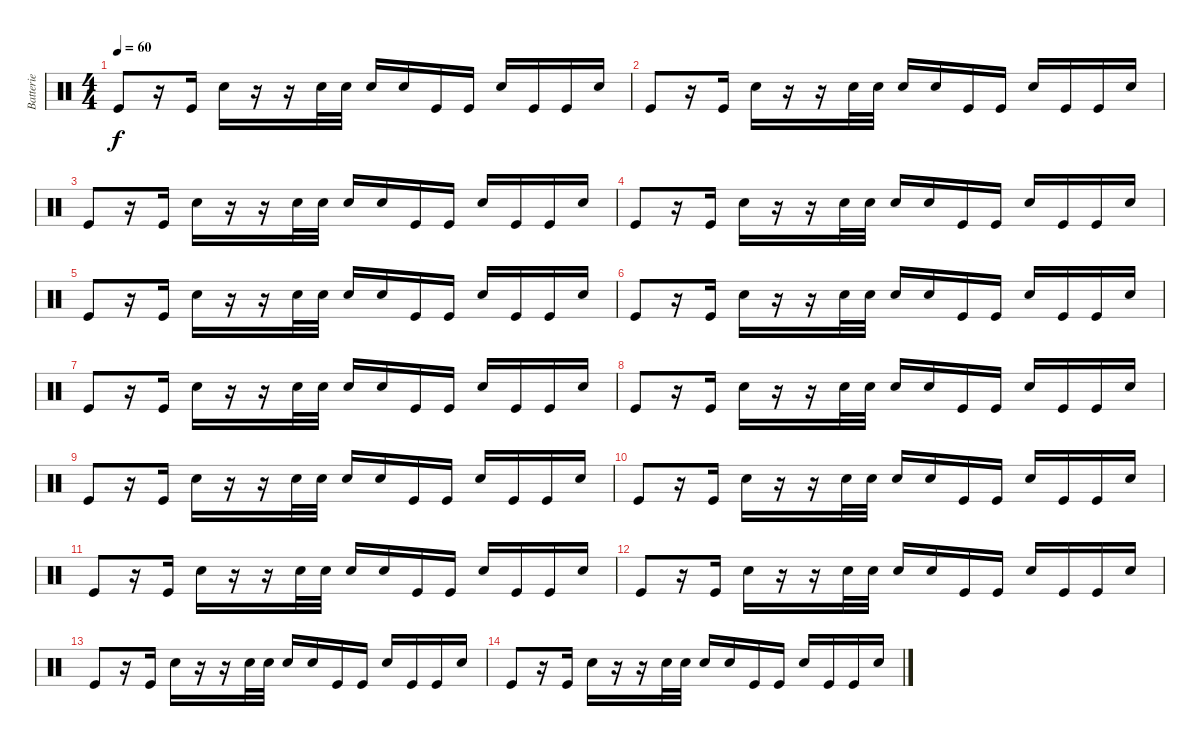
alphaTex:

\track ("Batterie" "Batterie") {instrument percussion}
\staff {score}
\articulation defaults
\ts (4 4)
\tempo 60
\clef neutral
\ks c "Kick (hit)".8{dy f}
r.16 "Kick (hit)".16 "Snare (hit) 2".16 r.16 r.16 "Snare (hit) 2".32 "Snare (hit) 2".32 "Snare (hit) 2".16 "Electric Snare (hit)".16 "Kick (hit)".16 "Kick (hit)".16 "Snare (hit) 2".16 "Kick (hit)".16 "Kick (hit)".16 "Snare (hit) 2".16 |
"Kick (hit)".8 r.16 "Kick (hit)".16 "Snare (hit) 2".16 r.16 r.16 "Snare (hit) 2".32 "Snare (hit) 2".32 "Snare (hit) 2".16 "Electric Snare (hit)".16 "Kick (hit)".16 "Kick (hit)".16 "Snare (hit) 2".16 "Kick (hit)".16 "Kick (hit)".16 "Snare (hit) 2".16 |
"Kick (hit)".8 r.16 "Kick (hit)".16 "Snare (hit) 2".16 r.16 r.16 "Snare (hit) 2".32 "Snare (hit) 2".32 "Snare (hit) 2".16 "Electric Snare (hit)".16 "Kick (hit)".16 "Kick (hit)".16 "Snare (hit) 2".16 "Kick (hit)".16 "Kick (hit)".16 "Snare (hit) 2".16 |
"Kick (hit)".8 r.16 "Kick (hit)".16 "Snare (hit) 2".16 r.16 r.16 "Snare (hit) 2".32 "Snare (hit) 2".32 "Snare (hit) 2".16 "Electric Snare (hit)".16 "Kick (hit)".16 "Kick (hit)".16 "Snare (hit) 2".16 "Kick (hit)".16 "Kick (hit)".16 "Snare (hit) 2".16 |
"Kick (hit)".8 r.16 "Kick (hit)".16 "Snare (hit) 2".16 r.16 r.16 "Snare (hit) 2".32 "Snare (hit) 2".32 "Snare (hit) 2".16 "Electric Snare (hit)".16 "Kick (hit)".16 "Kick (hit)".16 "Snare (hit) 2".16 "Kick (hit)".16 "Kick (hit)".16 "Snare (hit) 2".16 |
"Kick (hit)".8 r.16 "Kick (hit)".16 "Snare (hit) 2".16 r.16 r.16 "Snare (hit) 2".32 "Snare (hit) 2".32 "Snare (hit) 2".16 "Electric Snare (hit)".16 "Kick (hit)".16 "Kick (hit)".16 "Snare (hit) 2".16 "Kick (hit)".16 "Kick (hit)".16 "Snare (hit) 2".16 |
"Kick (hit)".8 r.16 "Kick (hit)".16 "Snare (hit) 2".16 r.16 r.16 "Snare (hit) 2".32 "Snare (hit) 2".32 "Snare (hit) 2".16 "Electric Snare (hit)".16 "Kick (hit)".16 "Kick (hit)".16 "Snare (hit) 2".16 "Kick (hit)".16 "Kick (hit)".16 "Snare (hit) 2".16 |
"Kick (hit)".8 r.16 "Kick (hit)".16 "Snare (hit) 2".16 r.16 r.16 "Snare (hit) 2".32 "Snare (hit) 2".32 "Snare (hit) 2".16 "Electric Snare (hit)".16 "Kick (hit)".16 "Kick (hit)".16 "Snare (hit) 2".16 "Kick (hit)".16 "Kick (hit)".16 "Snare (hit) 2".16 |
"Kick (hit)".8 r.16 "Kick (hit)".16 "Snare (hit) 2".16 r.16 r.16 "Snare (hit) 2".32 "Snare (hit) 2".32 "Snare (hit) 2".16 "Electric Snare (hit)".16 "Kick (hit)".16 "Kick (hit)".16 "Snare (hit) 2".16 "Kick (hit)".16 "Kick (hit)".16 "Snare (hit) 2".16 |
"Kick (hit)".8 r.16 "Kick (hit)".16 "Snare (hit) 2".16 r.16 r.16 "Snare (hit) 2".32 "Snare (hit) 2".32 "Snare (hit) 2".16 "Electric Snare (hit)".16 "Kick (hit)".16 "Kick (hit)".16 "Snare (hit) 2".16 "Kick (hit)".16 "Kick (hit)".16 "Snare (hit) 2".16 |
"Kick (hit)".8 r.16 "Kick (hit)".16 "Snare (hit) 2".16 r.16 r.16 "Snare (hit) 2".32 "Snare (hit) 2".32 "Snare (hit) 2".16 "Electric Snare (hit)".16 "Kick (hit)".16 "Kick (hit)".16 "Snare (hit) 2".16 "Kick (hit)".16 "Kick (hit)".16 "Snare (hit) 2".16 |
"Kick (hit)".8 r.16 "Kick (hit)".16 "Snare (hit) 2".16 r.16 r.16 "Snare (hit) 2".32 "Snare (hit) 2".32 "Snare (hit) 2".16 "Electric Snare (hit)".16 "Kick (hit)".16 "Kick (hit)".16 "Snare (hit) 2".16 "Kick (hit)".16 "Kick (hit)".16 "Snare (hit) 2".16 |
"Kick (hit)".8 r.16 "Kick (hit)".16 "Snare (hit) 2".16 r.16 r.16 "Snare (hit) 2".32 "Snare (hit) 2".32 "Snare (hit) 2".16 "Electric Snare (hit)".16 "Kick (hit)".16 "Kick (hit)".16 "Snare (hit) 2".16 "Kick (hit)".16 "Kick (hit)".16 "Snare (hit) 2".16 |
"Kick (hit)".8 r.16 "Kick (hit)".16 "Snare (hit) 2".16 r.16 r.16 "Snare (hit) 2".32 "Snare (hit) 2".32 "Snare (hit) 2".16 "Electric Snare (hit)".16 "Kick (hit)".16 "Kick (hit)".16 "Snare (hit) 2".16 "Kick (hit)".16 "Kick (hit)".16 "Snare (hit) 2".16
